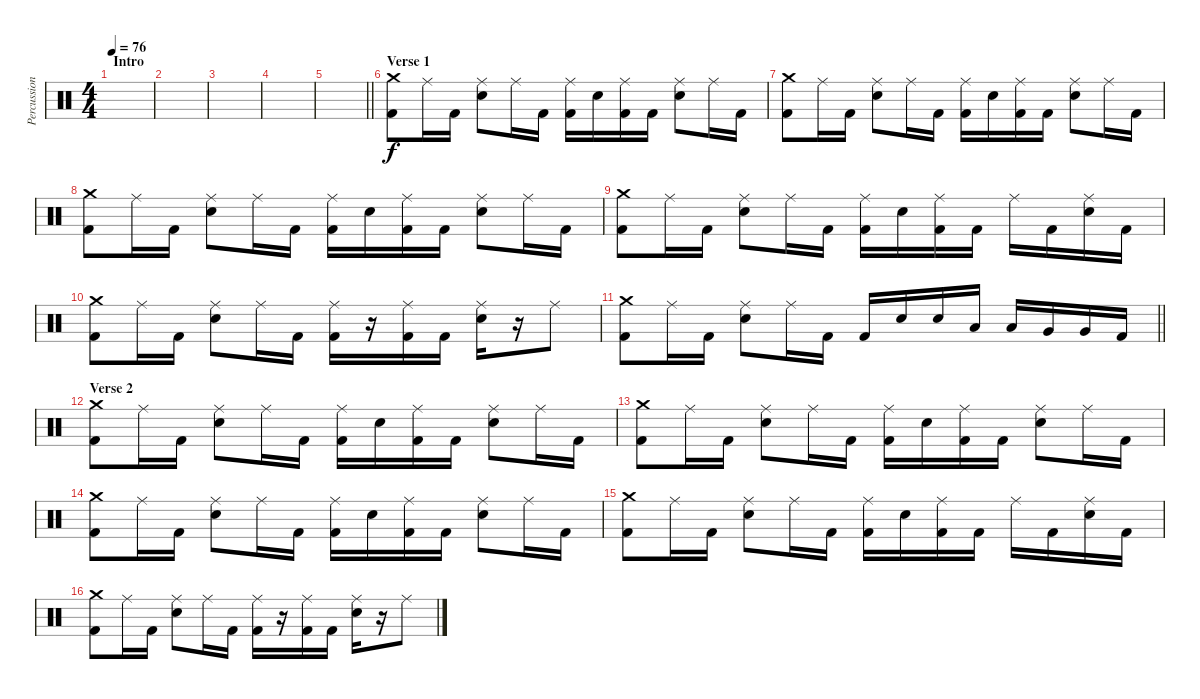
\track ("Percussions" "Percussion") {instrument percussion}
\staff {score}
\articulation defaults
\ts (4 4)
\section ("" "Intro")
\tempo 76
\clef neutral
\ks c
|
|
|
|
\barLineRight lightlight
|
\section ("" "Verse 1")
("Crash medium (hit)" "Kick (hit) 2").8 "Ride (middle)".16 "Kick (hit) 2".16 ("Ride (middle)" "Electric Snare (hit)").8 "Ride (middle)".16 "Kick (hit) 2".16 ("Ride (middle)" "Kick (hit) 2").16 "Electric Snare (hit)".16 ("Ride (middle)" "Kick (hit) 2").16 "Kick (hit) 2".16 ("Ride (middle)" "Electric Snare (hit)").8 "Ride (middle)".16 "Kick (hit) 2".16 |
("Crash medium (hit)" "Kick (hit) 2").8 "Ride (middle)".16 "Kick (hit) 2".16 ("Ride (middle)" "Electric Snare (hit)").8 "Ride (middle)".16 "Kick (hit) 2".16 ("Ride (middle)" "Kick (hit) 2").16 "Electric Snare (hit)".16 ("Ride (middle)" "Kick (hit) 2").16 "Kick (hit) 2".16 ("Ride (middle)" "Electric Snare (hit)").8 "Ride (middle)".16 "Kick (hit) 2".16 |
("Crash medium (hit)" "Kick (hit) 2").8 "Ride (middle)".16 "Kick (hit) 2".16 ("Ride (middle)" "Electric Snare (hit)").8 "Ride (middle)".16 "Kick (hit) 2".16 ("Ride (middle)" "Kick (hit) 2").16 "Electric Snare (hit)".16 ("Ride (middle)" "Kick (hit) 2").16 "Kick (hit) 2".16 ("Ride (middle)" "Electric Snare (hit)").8 "Ride (middle)".16 "Kick (hit) 2".16 |
("Crash medium (hit)" "Kick (hit) 2").8 "Ride (middle)".16 "Kick (hit) 2".16 ("Ride (middle)" "Electric Snare (hit)").8 "Ride (middle)".16 "Kick (hit) 2".16 ("Ride (middle)" "Kick (hit) 2").16 "Electric Snare (hit)".16 ("Ride (middle)" "Kick (hit) 2").16 "Kick (hit) 2".16 "Ride (middle)".16 "Kick (hit) 2".16 ("Ride (middle)" "Electric Snare (hit)").16 "Kick (hit) 2".16 |
("Crash medium (hit)" "Kick (hit) 2").8 "Ride (middle)".16 "Kick (hit) 2".16 ("Ride (middle)" "Electric Snare (hit)").8 "Ride (middle)".16 "Kick (hit) 2".16 ("Ride (middle)" "Kick (hit) 2").16 r.16 ("Ride (middle)" "Kick (hit) 2").16 "Kick (hit) 2".16 ("Ride (middle)" "Electric Snare (hit)").16 r.16 "Ride (middle)".8 |
\barLineRight lightlight
("Crash medium (hit)" "Kick (hit) 2").8 "Ride (middle)".16 "Kick (hit) 2".16 ("Ride (middle)" "Electric Snare (hit)").8 "Ride (middle)".16 "Kick (hit) 2".16 "Kick (hit) 2".16 "Electric Snare (hit)".16 "Electric Snare (hit)".16 "Low Tom (hit)".16 "Low Tom (hit)".16 "Very Low Tom (hit)".16 "Very Low Tom (hit)".16 "Kick (hit) 2".16 |
\section ("" "Verse 2")
("Crash medium (hit)" "Kick (hit) 2").8 "Ride (middle)".16 "Kick (hit) 2".16 ("Ride (middle)" "Electric Snare (hit)").8 "Ride (middle)".16 "Kick (hit) 2".16 ("Ride (middle)" "Kick (hit) 2").16 "Electric Snare (hit)".16 ("Ride (middle)" "Kick (hit) 2").16 "Kick (hit) 2".16 ("Ride (middle)" "Electric Snare (hit)").8 "Ride (middle)".16 "Kick (hit) 2".16 |
("Crash medium (hit)" "Kick (hit) 2").8 "Ride (middle)".16 "Kick (hit) 2".16 ("Ride (middle)" "Electric Snare (hit)").8 "Ride (middle)".16 "Kick (hit) 2".16 ("Ride (middle)" "Kick (hit) 2").16 "Electric Snare (hit)".16 ("Ride (middle)" "Kick (hit) 2").16 "Kick (hit) 2".16 ("Ride (middle)" "Electric Snare (hit)").8 "Ride (middle)".16 "Kick (hit) 2".16 |
("Crash medium (hit)" "Kick (hit) 2").8 "Ride (middle)".16 "Kick (hit) 2".16 ("Ride (middle)" "Electric Snare (hit)").8 "Ride (middle)".16 "Kick (hit) 2".16 ("Ride (middle)" "Kick (hit) 2").16 "Electric Snare (hit)".16 ("Ride (middle)" "Kick (hit) 2").16 "Kick (hit) 2".16 ("Ride (middle)" "Electric Snare (hit)").8 "Ride (middle)".16 "Kick (hit) 2".16 |
("Crash medium (hit)" "Kick (hit) 2").8 "Ride (middle)".16 "Kick (hit) 2".16 ("Ride (middle)" "Electric Snare (hit)").8 "Ride (middle)".16 "Kick (hit) 2".16 ("Ride (middle)" "Kick (hit) 2").16 "Electric Snare (hit)".16 ("Ride (middle)" "Kick (hit) 2").16 "Kick (hit) 2".16 "Ride (middle)".16 "Kick (hit) 2".16 ("Ride (middle)" "Electric Snare (hit)").16 "Kick (hit) 2".16 |
("Crash medium (hit)" "Kick (hit) 2").8 "Ride (middle)".16 "Kick (hit) 2".16 ("Ride (middle)" "Electric Snare (hit)").8 "Ride (middle)".16 "Kick (hit) 2".16 ("Ride (middle)" "Kick (hit) 2").16 r.16 ("Ride (middle)" "Kick (hit) 2").16 "Kick (hit) 2".16 ("Ride (middle)" "Electric Snare (hit)").16 r.16 "Ride (middle)".8
